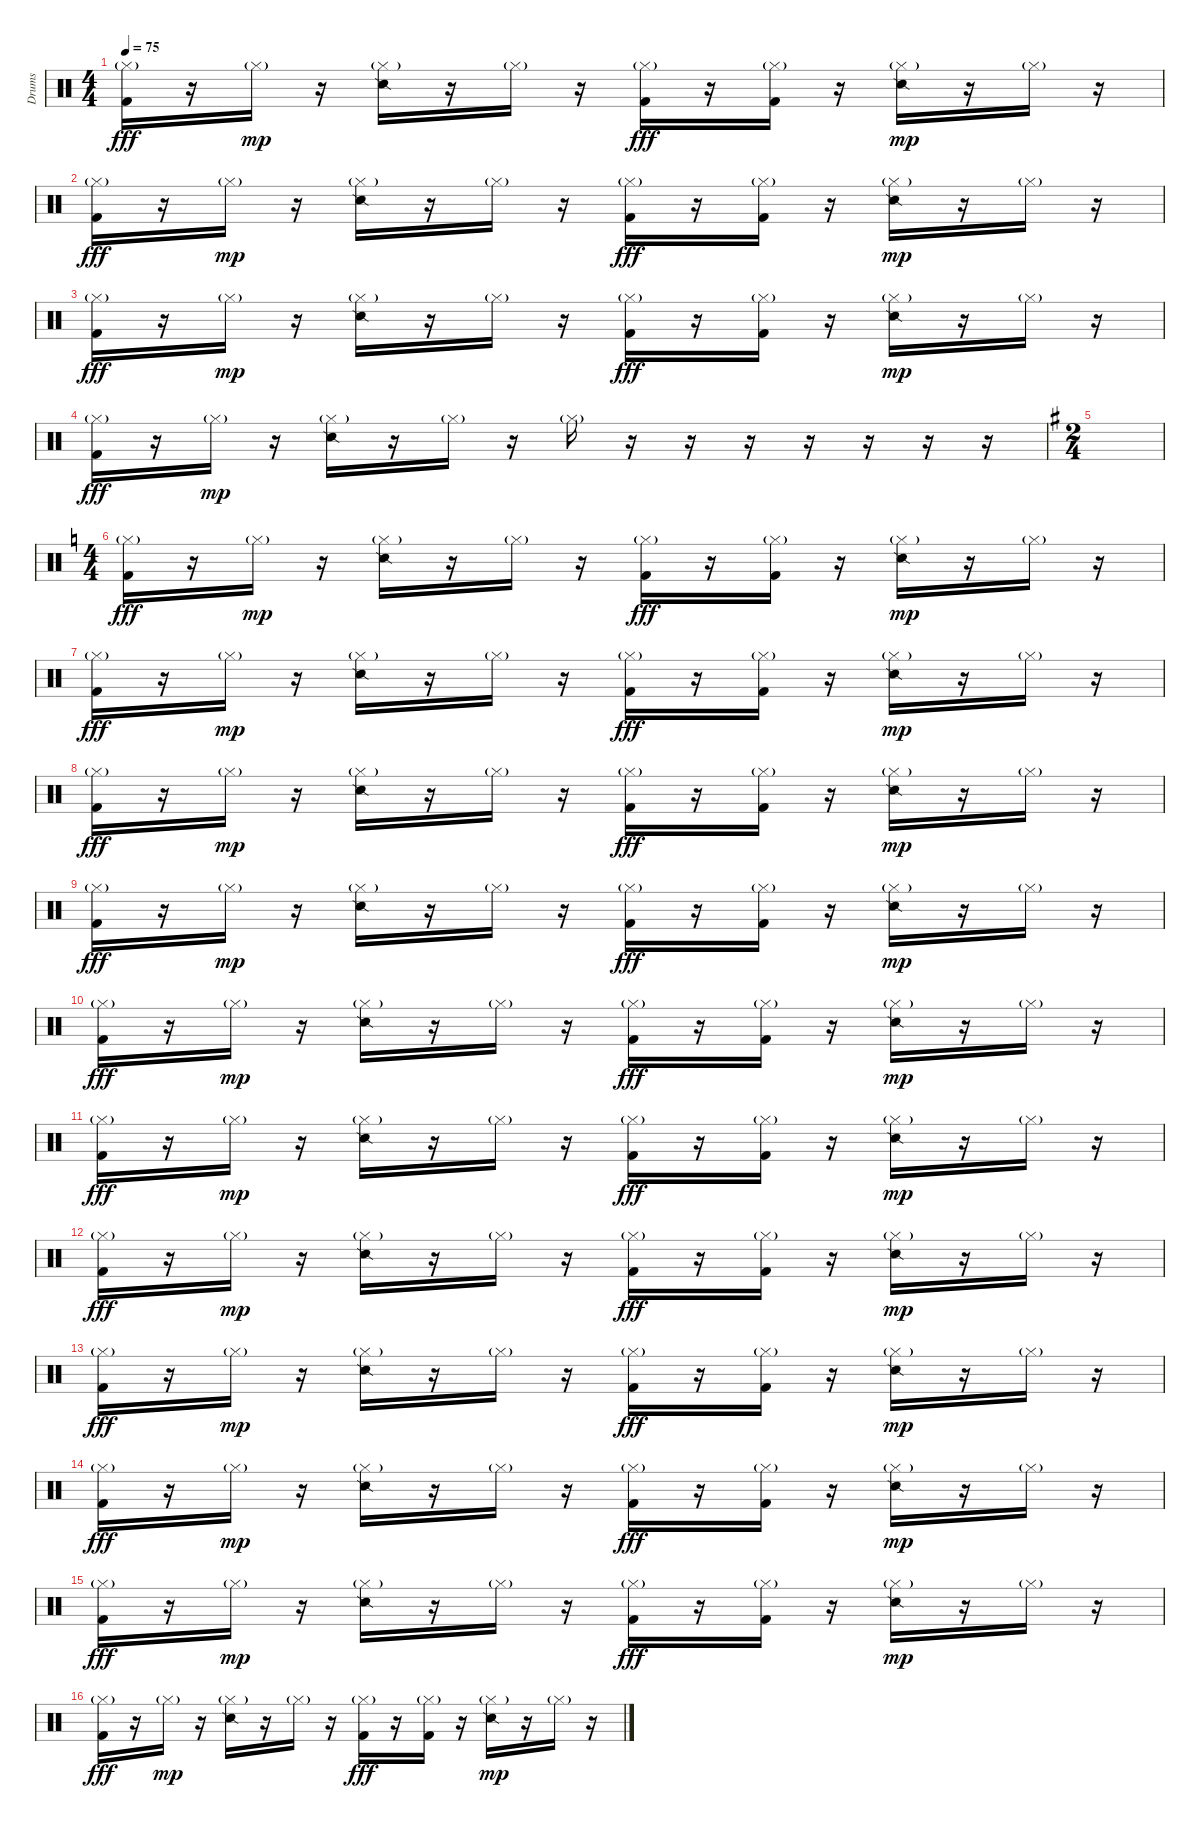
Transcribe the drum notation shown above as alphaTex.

\track ("Drums" "Drums") {instrument percussion}
\staff {score}
\articulation defaults
\ts (4 4)
\tempo 75
\clef neutral
\ks c
("Hi-Hat (closed)"{g} "Kick (hit) 2").16{dy fff volume 10 balance 5} r.16 "Hi-Hat (closed)"{g}.16{dy mp} r.16 ("Hi-Hat (closed)"{g} "Snare (side stick) 2").16 r.16 "Hi-Hat (closed)"{g}.16 r.16 ("Hi-Hat (closed)"{g} "Kick (hit) 2").16{dy fff} r.16 ("Hi-Hat (closed)"{g} "Kick (hit) 2").16 r.16 ("Hi-Hat (closed)"{g} "Snare (side stick) 2").16{dy mp} r.16 "Hi-Hat (closed)"{g}.16 r.16 |
("Hi-Hat (closed)"{g} "Kick (hit) 2").16{dy fff} r.16 "Hi-Hat (closed)"{g}.16{dy mp} r.16 ("Hi-Hat (closed)"{g} "Snare (side stick) 2").16 r.16 "Hi-Hat (closed)"{g}.16 r.16 ("Hi-Hat (closed)"{g} "Kick (hit) 2").16{dy fff} r.16 ("Hi-Hat (closed)"{g} "Kick (hit) 2").16 r.16 ("Hi-Hat (closed)"{g} "Snare (side stick) 2").16{dy mp} r.16 "Hi-Hat (closed)"{g}.16 r.16 |
("Hi-Hat (closed)"{g} "Kick (hit) 2").16{dy fff} r.16 "Hi-Hat (closed)"{g}.16{dy mp} r.16 ("Hi-Hat (closed)"{g} "Snare (side stick) 2").16 r.16 "Hi-Hat (closed)"{g}.16 r.16 ("Hi-Hat (closed)"{g} "Kick (hit) 2").16{dy fff} r.16 ("Hi-Hat (closed)"{g} "Kick (hit) 2").16 r.16 ("Hi-Hat (closed)"{g} "Snare (side stick) 2").16{dy mp} r.16 "Hi-Hat (closed)"{g}.16 r.16 |
("Hi-Hat (closed)"{g} "Kick (hit) 2").16{dy fff} r.16 "Hi-Hat (closed)"{g}.16{dy mp} r.16 ("Hi-Hat (closed)"{g} "Snare (side stick) 2").16 r.16 "Hi-Hat (closed)"{g}.16 r.16 "Hi-Hat (closed)"{g}.16 r.16 r.16 r.16 r.16 r.16 r.16 r.16 |
\ts (2 4)
\ks g
|
\ts (4 4)
\ks c
("Hi-Hat (closed)"{g} "Kick (hit) 2").16{dy fff volume 16 balance 8} r.16 "Hi-Hat (closed)"{g}.16{dy mp} r.16 ("Hi-Hat (closed)"{g} "Snare (side stick) 2").16 r.16 "Hi-Hat (closed)"{g}.16 r.16 ("Hi-Hat (closed)"{g} "Kick (hit) 2").16{dy fff} r.16 ("Hi-Hat (closed)"{g} "Kick (hit) 2").16 r.16 ("Hi-Hat (closed)"{g} "Snare (side stick) 2").16{dy mp} r.16 "Hi-Hat (closed)"{g}.16 r.16 |
("Hi-Hat (closed)"{g} "Kick (hit) 2").16{dy fff} r.16 "Hi-Hat (closed)"{g}.16{dy mp} r.16 ("Hi-Hat (closed)"{g} "Snare (side stick) 2").16 r.16 "Hi-Hat (closed)"{g}.16 r.16 ("Hi-Hat (closed)"{g} "Kick (hit) 2").16{dy fff} r.16 ("Hi-Hat (closed)"{g} "Kick (hit) 2").16 r.16 ("Hi-Hat (closed)"{g} "Snare (side stick) 2").16{dy mp} r.16 "Hi-Hat (closed)"{g}.16 r.16 |
("Hi-Hat (closed)"{g} "Kick (hit) 2").16{dy fff} r.16 "Hi-Hat (closed)"{g}.16{dy mp} r.16 ("Hi-Hat (closed)"{g} "Snare (side stick) 2").16 r.16 "Hi-Hat (closed)"{g}.16 r.16 ("Hi-Hat (closed)"{g} "Kick (hit) 2").16{dy fff} r.16 ("Hi-Hat (closed)"{g} "Kick (hit) 2").16 r.16 ("Hi-Hat (closed)"{g} "Snare (side stick) 2").16{dy mp} r.16 "Hi-Hat (closed)"{g}.16 r.16 |
("Hi-Hat (closed)"{g} "Kick (hit) 2").16{dy fff} r.16 "Hi-Hat (closed)"{g}.16{dy mp} r.16 ("Hi-Hat (closed)"{g} "Snare (side stick) 2").16 r.16 "Hi-Hat (closed)"{g}.16 r.16 ("Hi-Hat (closed)"{g} "Kick (hit) 2").16{dy fff} r.16 ("Hi-Hat (closed)"{g} "Kick (hit) 2").16 r.16 ("Hi-Hat (closed)"{g} "Snare (side stick) 2").16{dy mp} r.16 "Hi-Hat (closed)"{g}.16 r.16 |
("Hi-Hat (closed)"{g} "Kick (hit) 2").16{dy fff} r.16 "Hi-Hat (closed)"{g}.16{dy mp} r.16 ("Hi-Hat (closed)"{g} "Snare (side stick) 2").16 r.16 "Hi-Hat (closed)"{g}.16 r.16 ("Hi-Hat (closed)"{g} "Kick (hit) 2").16{dy fff} r.16 ("Hi-Hat (closed)"{g} "Kick (hit) 2").16 r.16 ("Hi-Hat (closed)"{g} "Snare (side stick) 2").16{dy mp} r.16 "Hi-Hat (closed)"{g}.16 r.16 |
("Hi-Hat (closed)"{g} "Kick (hit) 2").16{dy fff} r.16 "Hi-Hat (closed)"{g}.16{dy mp} r.16 ("Hi-Hat (closed)"{g} "Snare (side stick) 2").16 r.16 "Hi-Hat (closed)"{g}.16 r.16 ("Hi-Hat (closed)"{g} "Kick (hit) 2").16{dy fff} r.16 ("Hi-Hat (closed)"{g} "Kick (hit) 2").16 r.16 ("Hi-Hat (closed)"{g} "Snare (side stick) 2").16{dy mp} r.16 "Hi-Hat (closed)"{g}.16 r.16 |
("Hi-Hat (closed)"{g} "Kick (hit) 2").16{dy fff} r.16 "Hi-Hat (closed)"{g}.16{dy mp} r.16 ("Hi-Hat (closed)"{g} "Snare (side stick) 2").16 r.16 "Hi-Hat (closed)"{g}.16 r.16 ("Hi-Hat (closed)"{g} "Kick (hit) 2").16{dy fff} r.16 ("Hi-Hat (closed)"{g} "Kick (hit) 2").16 r.16 ("Hi-Hat (closed)"{g} "Snare (side stick) 2").16{dy mp} r.16 "Hi-Hat (closed)"{g}.16 r.16 |
("Hi-Hat (closed)"{g} "Kick (hit) 2").16{dy fff} r.16 "Hi-Hat (closed)"{g}.16{dy mp} r.16 ("Hi-Hat (closed)"{g} "Snare (side stick) 2").16 r.16 "Hi-Hat (closed)"{g}.16 r.16 ("Hi-Hat (closed)"{g} "Kick (hit) 2").16{dy fff} r.16 ("Hi-Hat (closed)"{g} "Kick (hit) 2").16 r.16 ("Hi-Hat (closed)"{g} "Snare (side stick) 2").16{dy mp} r.16 "Hi-Hat (closed)"{g}.16 r.16 |
("Hi-Hat (closed)"{g} "Kick (hit) 2").16{dy fff} r.16 "Hi-Hat (closed)"{g}.16{dy mp} r.16 ("Hi-Hat (closed)"{g} "Snare (side stick) 2").16 r.16 "Hi-Hat (closed)"{g}.16 r.16 ("Hi-Hat (closed)"{g} "Kick (hit) 2").16{dy fff} r.16 ("Hi-Hat (closed)"{g} "Kick (hit) 2").16 r.16 ("Hi-Hat (closed)"{g} "Snare (side stick) 2").16{dy mp} r.16 "Hi-Hat (closed)"{g}.16 r.16 |
("Hi-Hat (closed)"{g} "Kick (hit) 2").16{dy fff} r.16 "Hi-Hat (closed)"{g}.16{dy mp} r.16 ("Hi-Hat (closed)"{g} "Snare (side stick) 2").16 r.16 "Hi-Hat (closed)"{g}.16 r.16 ("Hi-Hat (closed)"{g} "Kick (hit) 2").16{dy fff} r.16 ("Hi-Hat (closed)"{g} "Kick (hit) 2").16 r.16 ("Hi-Hat (closed)"{g} "Snare (side stick) 2").16{dy mp} r.16 "Hi-Hat (closed)"{g}.16 r.16 |
("Hi-Hat (closed)"{g} "Kick (hit) 2").16{dy fff} r.16 "Hi-Hat (closed)"{g}.16{dy mp} r.16 ("Hi-Hat (closed)"{g} "Snare (side stick) 2").16 r.16 "Hi-Hat (closed)"{g}.16 r.16 ("Hi-Hat (closed)"{g} "Kick (hit) 2").16{dy fff} r.16 ("Hi-Hat (closed)"{g} "Kick (hit) 2").16 r.16 ("Hi-Hat (closed)"{g} "Snare (side stick) 2").16{dy mp} r.16 "Hi-Hat (closed)"{g}.16 r.16
